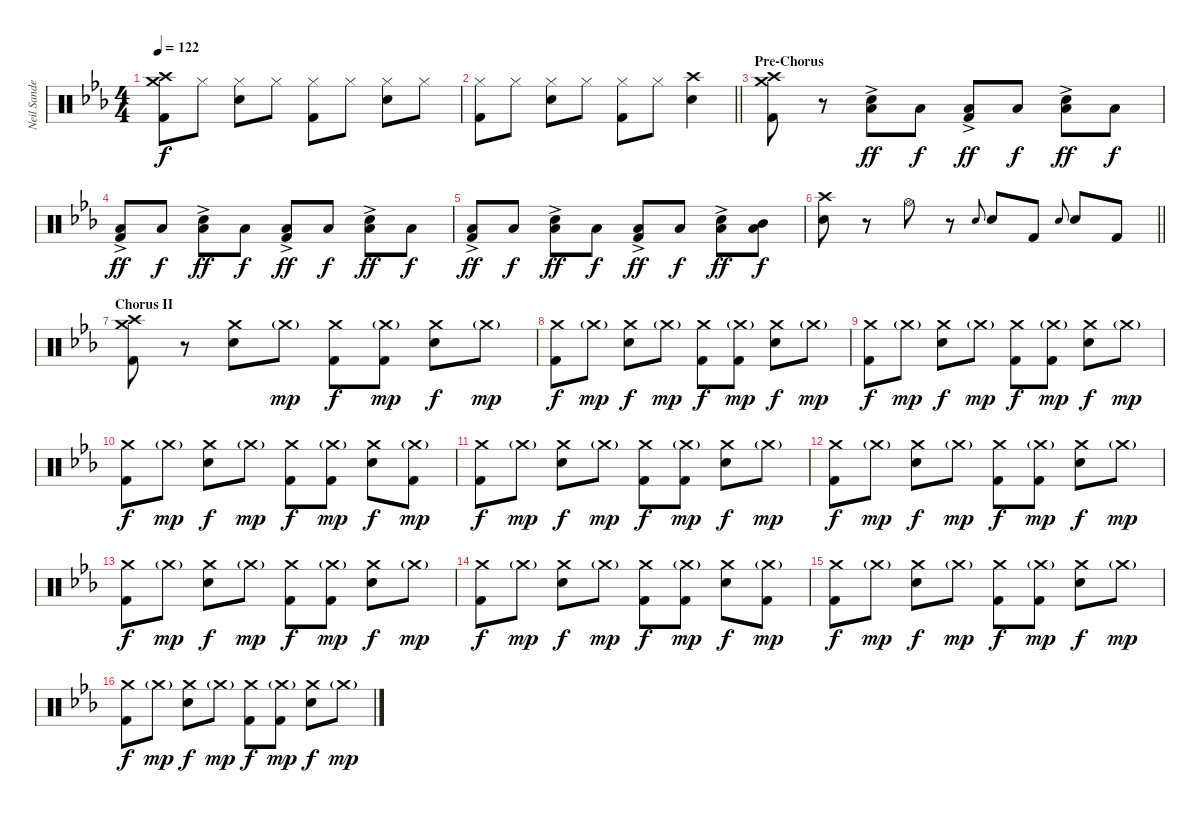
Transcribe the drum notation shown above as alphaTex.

\track ("Neil Sanderson" "Neil Sande") {instrument percussion}
\staff {score}
\articulation defaults
\ts (4 4)
\tempo 122
\clef neutral
\ks cminor
("Crash medium (hit)" "Crash high (hit)" "Kick (hit) 2").8{dy f} "Hi-Hat (closed)".8 ("Hi-Hat (closed)" "Electric Snare (hit)").8 "Hi-Hat (closed)".8 ("Hi-Hat (closed)" "Kick (hit) 2").8 "Hi-Hat (closed)".8 ("Hi-Hat (closed)" "Electric Snare (hit)").8 "Hi-Hat (closed)".8 |
\barLineRight lightlight
("Hi-Hat (closed)" "Kick (hit) 2").8 "Hi-Hat (closed)".8 ("Hi-Hat (closed)" "Electric Snare (hit)").8 "Hi-Hat (closed)".8 ("Hi-Hat (closed)" "Kick (hit) 2").8 "Hi-Hat (closed)".8 ("Crash high (hit)" "Electric Snare (hit)").4 |
\section ("" "Pre-Chorus")
("Crash medium (hit)" "Crash high (hit)" "Kick (hit) 2").8 r.8 ("Electric Snare (hit)" "Low Floor Tom (hit)"{ac}).8{dy ff} "Low Floor Tom (hit)".8{dy f} ("Low Floor Tom (hit)"{ac} "Kick (hit) 2").8{dy ff} "Low Floor Tom (hit)".8{dy f} ("Electric Snare (hit)" "Low Floor Tom (hit)"{ac}).8{dy ff} "Low Floor Tom (hit)".8{dy f} |
("Low Floor Tom (hit)"{ac} "Kick (hit) 2").8{dy ff} "Low Floor Tom (hit)".8{dy f} ("Electric Snare (hit)" "Low Floor Tom (hit)"{ac}).8{dy ff} "Low Floor Tom (hit)".8{dy f} ("Low Floor Tom (hit)"{ac} "Kick (hit) 2").8{dy ff} "Low Floor Tom (hit)".8{dy f} ("Electric Snare (hit)" "Low Floor Tom (hit)"{ac}).8{dy ff} "Low Floor Tom (hit)".8{dy f} |
("Low Floor Tom (hit)"{ac} "Kick (hit) 2").8{dy ff} "Low Floor Tom (hit)".8{dy f} ("Electric Snare (hit)" "Low Floor Tom (hit)"{ac}).8{dy ff} "Low Floor Tom (hit)".8{dy f} ("Low Floor Tom (hit)"{ac} "Kick (hit) 2").8{dy ff} "Low Floor Tom (hit)".8{dy f} ("Electric Snare (hit)" "Low Floor Tom (hit)"{ac}).8{dy ff} ("Mid Tom (hit)" "Low Floor Tom (hit)").8{dy f} |
\barLineRight lightlight
("Crash high (hit)" "Electric Snare (hit)").8 r.8 "Hi-Hat (open)".8 r.8 "Electric Snare (hit)".8{gr onbeat} "Electric Snare (hit)".8 "Kick (hit) 2".8 "Electric Snare (hit)".8{gr onbeat} "Electric Snare (hit)".8 "Kick (hit) 2".8 |
\section ("" "Chorus II")
("Crash medium (hit)" "Crash high (hit)" "Kick (hit) 2").8 r.8 ("Crash medium (hit)" "Electric Snare (hit)").8 "Crash medium (hit)"{g}.8{dy mp} ("Crash medium (hit)" "Kick (hit) 2").8{dy f} ("Crash medium (hit)"{g} "Kick (hit) 2").8{dy mp} ("Crash medium (hit)" "Electric Snare (hit)").8{dy f} "Crash medium (hit)"{g}.8{dy mp} |
("Crash medium (hit)" "Kick (hit) 2").8{dy f} "Crash medium (hit)"{g}.8{dy mp} ("Crash medium (hit)" "Electric Snare (hit)").8{dy f} "Crash medium (hit)"{g}.8{dy mp} ("Crash medium (hit)" "Kick (hit) 2").8{dy f} ("Crash medium (hit)"{g} "Kick (hit) 2").8{dy mp} ("Crash medium (hit)" "Electric Snare (hit)").8{dy f} "Crash medium (hit)"{g}.8{dy mp} |
("Crash medium (hit)" "Kick (hit) 2").8{dy f} "Crash medium (hit)"{g}.8{dy mp} ("Crash medium (hit)" "Electric Snare (hit)").8{dy f} "Crash medium (hit)"{g}.8{dy mp} ("Crash medium (hit)" "Kick (hit) 2").8{dy f} ("Crash medium (hit)"{g} "Kick (hit) 2").8{dy mp} ("Crash medium (hit)" "Electric Snare (hit)").8{dy f} "Crash medium (hit)"{g}.8{dy mp} |
("Crash medium (hit)" "Kick (hit) 2").8{dy f} "Crash medium (hit)"{g}.8{dy mp} ("Crash medium (hit)" "Electric Snare (hit)").8{dy f} "Crash medium (hit)"{g}.8{dy mp} ("Crash medium (hit)" "Kick (hit) 2").8{dy f} ("Crash medium (hit)"{g} "Kick (hit) 2").8{dy mp} ("Crash medium (hit)" "Electric Snare (hit)").8{dy f} ("Crash medium (hit)"{g} "Kick (hit) 2").8{dy mp} |
("Crash medium (hit)" "Kick (hit) 2").8{dy f} "Crash medium (hit)"{g}.8{dy mp} ("Crash medium (hit)" "Electric Snare (hit)").8{dy f} "Crash medium (hit)"{g}.8{dy mp} ("Crash medium (hit)" "Kick (hit) 2").8{dy f} ("Crash medium (hit)"{g} "Kick (hit) 2").8{dy mp} ("Crash medium (hit)" "Electric Snare (hit)").8{dy f} "Crash medium (hit)"{g}.8{dy mp} |
("Crash medium (hit)" "Kick (hit) 2").8{dy f} "Crash medium (hit)"{g}.8{dy mp} ("Crash medium (hit)" "Electric Snare (hit)").8{dy f} "Crash medium (hit)"{g}.8{dy mp} ("Crash medium (hit)" "Kick (hit) 2").8{dy f} ("Crash medium (hit)"{g} "Kick (hit) 2").8{dy mp} ("Crash medium (hit)" "Electric Snare (hit)").8{dy f} "Crash medium (hit)"{g}.8{dy mp} |
("Crash medium (hit)" "Kick (hit) 2").8{dy f} "Crash medium (hit)"{g}.8{dy mp} ("Crash medium (hit)" "Electric Snare (hit)").8{dy f} "Crash medium (hit)"{g}.8{dy mp} ("Crash medium (hit)" "Kick (hit) 2").8{dy f} ("Crash medium (hit)"{g} "Kick (hit) 2").8{dy mp} ("Crash medium (hit)" "Electric Snare (hit)").8{dy f} "Crash medium (hit)"{g}.8{dy mp} |
("Crash medium (hit)" "Kick (hit) 2").8{dy f} "Crash medium (hit)"{g}.8{dy mp} ("Crash medium (hit)" "Electric Snare (hit)").8{dy f} "Crash medium (hit)"{g}.8{dy mp} ("Crash medium (hit)" "Kick (hit) 2").8{dy f} ("Crash medium (hit)"{g} "Kick (hit) 2").8{dy mp} ("Crash medium (hit)" "Electric Snare (hit)").8{dy f} ("Crash medium (hit)"{g} "Kick (hit) 2").8{dy mp} |
("Crash medium (hit)" "Kick (hit) 2").8{dy f} "Crash medium (hit)"{g}.8{dy mp} ("Crash medium (hit)" "Electric Snare (hit)").8{dy f} "Crash medium (hit)"{g}.8{dy mp} ("Crash medium (hit)" "Kick (hit) 2").8{dy f} ("Crash medium (hit)"{g} "Kick (hit) 2").8{dy mp} ("Crash medium (hit)" "Electric Snare (hit)").8{dy f} "Crash medium (hit)"{g}.8{dy mp} |
("Crash medium (hit)" "Kick (hit) 2").8{dy f} "Crash medium (hit)"{g}.8{dy mp} ("Crash medium (hit)" "Electric Snare (hit)").8{dy f} "Crash medium (hit)"{g}.8{dy mp} ("Crash medium (hit)" "Kick (hit) 2").8{dy f} ("Crash medium (hit)"{g} "Kick (hit) 2").8{dy mp} ("Crash medium (hit)" "Electric Snare (hit)").8{dy f} "Crash medium (hit)"{g}.8{dy mp}
